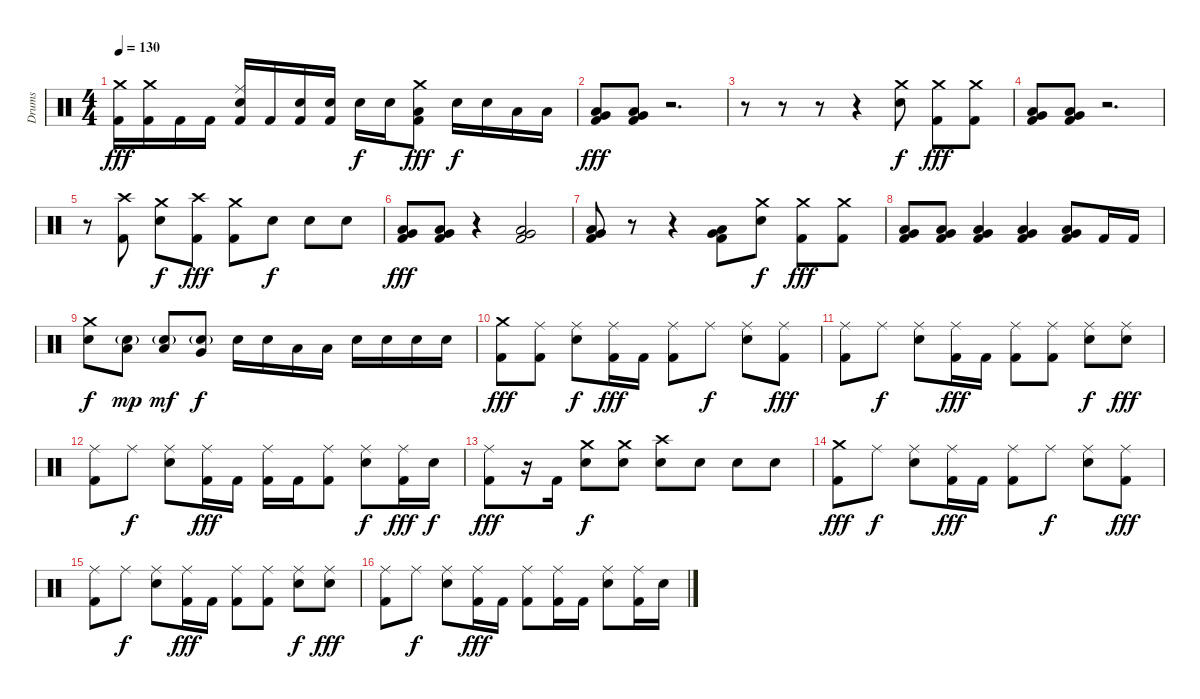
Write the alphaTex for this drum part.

\track ("Drums" "Drums") {instrument percussion}
\staff {score}
\articulation defaults
\ts (4 4)
\tempo 130
\clef neutral
\ks c
("Crash medium (hit)" "Kick (hit) 2").16{dy fff} ("Crash medium (hit)" "Kick (hit) 2").16 "Kick (hit) 2".16 "Kick (hit) 2".16 ("Ride (middle)" "Snare (hit) 2" "Kick (hit) 2").16 "Kick (hit) 2".16 ("Snare (hit) 2" "Kick (hit) 2").16 ("Snare (hit) 2" "Kick (hit) 2").16 "Snare (hit) 2".16{dy f} "Snare (hit) 2".16 ("Crash medium (hit)" "Low Tom (hit)" "Kick (hit) 2").8{dy fff} "Snare (hit) 2".16{dy f} "Snare (hit) 2".16 "Low Tom (hit)".16 "Low Tom (hit)".16 |
("Very Low Tom (hit)" "Low Tom (hit)" "Kick (hit) 2").8{dy fff} ("Very Low Tom (hit)" "Low Tom (hit)" "Kick (hit) 2").8 r.2{d} |
r.8 r.8 r.8 r.4 ("Crash medium (hit)" "Electric Snare (hit)").8{dy f} ("Crash medium (hit)" "Kick (hit) 2").8{dy fff} ("Crash medium (hit)" "Kick (hit) 2").8 |
("Very Low Tom (hit)" "Low Tom (hit)" "Kick (hit) 2").8 ("Very Low Tom (hit)" "Low Tom (hit)" "Kick (hit) 2").8 r.2{d} |
r.8 ("Crash high (hit)" "Kick (hit) 2").8 ("Crash medium (hit)" "Electric Snare (hit)").8{dy f} ("Crash high (hit)" "Kick (hit) 2").8{dy fff} ("Crash medium (hit)" "Kick (hit) 2").8 "Electric Snare (hit)".8{dy f} "Electric Snare (hit)".8 "Electric Snare (hit)".8 |
("Very Low Tom (hit)" "Low Tom (hit)" "Kick (hit) 2").8{dy fff} ("Very Low Tom (hit)" "Low Tom (hit)" "Kick (hit) 2").8 r.4 ("Very Low Tom (hit)" "Low Tom (hit)" "Kick (hit) 2").2 |
("Very Low Tom (hit)" "Low Tom (hit)" "Kick (hit) 2").8 r.8 r.4 ("Very Low Tom (hit)" "Low Tom (hit)" "Kick (hit) 2").8 ("Crash medium (hit)" "Electric Snare (hit)").8{dy f} ("Crash medium (hit)" "Kick (hit) 2").8{dy fff} ("Crash medium (hit)" "Kick (hit) 2").8 |
("Very Low Tom (hit)" "Low Tom (hit)" "Kick (hit) 2").8 ("Very Low Tom (hit)" "Low Tom (hit)" "Kick (hit) 2").8 ("Very Low Tom (hit)" "Low Tom (hit)" "Kick (hit) 2").4 ("Very Low Tom (hit)" "Low Tom (hit)" "Kick (hit) 2").4 ("Very Low Tom (hit)" "Low Tom (hit)" "Kick (hit) 2").8 "Kick (hit) 2".16 "Kick (hit) 2".16 |
("Crash medium (hit)" "Electric Snare (hit)").8{dy f} ("Low Floor Tom (hit)" "Electric Snare (hit)"{g}).8{dy mp} ("Low Tom (hit)" "Electric Snare (hit)"{g}).8{dy mf} ("Very Low Tom (hit)" "Electric Snare (hit)"{g}).8{dy f} "Electric Snare (hit)".16 "Electric Snare (hit)".16 "Low Tom (hit)".16 "Low Tom (hit)".16 "Electric Snare (hit)".16 "Electric Snare (hit)".16 "Electric Snare (hit)".16 "Electric Snare (hit)".16 |
("Crash medium (hit)" "Kick (hit) 2").8{dy fff} ("Ride (middle)" "Kick (hit) 2").8 ("Ride (middle)" "Electric Snare (hit)").8{dy f} ("Ride (middle)" "Kick (hit) 2").16{dy fff} "Kick (hit) 2".16 ("Ride (middle)" "Kick (hit) 2").8 "Ride (middle)".8{dy f} ("Ride (middle)" "Electric Snare (hit)").8 ("Ride (middle)" "Kick (hit) 2").8{dy fff} |
("Ride (middle)" "Kick (hit) 2").8 "Ride (middle)".8{dy f} ("Ride (middle)" "Electric Snare (hit)").8 ("Ride (middle)" "Kick (hit) 2").16{dy fff} "Kick (hit) 2".16 ("Ride (middle)" "Kick (hit) 2").8 ("Ride (middle)" "Kick (hit) 2").8 ("Ride (middle)" "Electric Snare (hit)").8{dy f} ("Ride (middle)" "Electric Snare (hit)").8{dy fff} |
("Ride (middle)" "Kick (hit) 2").8 "Ride (middle)".8{dy f} ("Ride (middle)" "Electric Snare (hit)").8 ("Ride (middle)" "Kick (hit) 2").16{dy fff} "Kick (hit) 2".16 ("Ride (middle)" "Kick (hit) 2").16 "Kick (hit) 2".16 ("Ride (middle)" "Kick (hit) 2").8 ("Ride (middle)" "Electric Snare (hit)").8{dy f} ("Ride (middle)" "Kick (hit) 2").16{dy fff} "Electric Snare (hit)".16{dy f} |
("Ride (middle)" "Kick (hit) 2").8{dy fff} r.16 "Kick (hit) 2".16 ("Crash medium (hit)" "Electric Snare (hit)").8{dy f} ("Crash medium (hit)" "Electric Snare (hit)").8 ("Crash high (hit)" "Electric Snare (hit)").8 "Electric Snare (hit)".8 "Electric Snare (hit)".8 "Electric Snare (hit)".8 |
("Crash medium (hit)" "Kick (hit) 2").8{dy fff} "Ride (middle)".8{dy f} ("Ride (middle)" "Electric Snare (hit)").8 ("Ride (middle)" "Kick (hit) 2").16{dy fff} "Kick (hit) 2".16 ("Ride (middle)" "Kick (hit) 2").8 "Ride (middle)".8{dy f} ("Ride (middle)" "Electric Snare (hit)").8 ("Ride (middle)" "Kick (hit) 2").8{dy fff} |
("Ride (middle)" "Kick (hit) 2").8 "Ride (middle)".8{dy f} ("Ride (middle)" "Electric Snare (hit)").8 ("Ride (middle)" "Kick (hit) 2").16{dy fff} "Kick (hit) 2".16 ("Ride (middle)" "Kick (hit) 2").8 ("Ride (middle)" "Kick (hit) 2").8 ("Ride (middle)" "Electric Snare (hit)").8{dy f} ("Ride (middle)" "Electric Snare (hit)").8{dy fff} |
("Ride (middle)" "Kick (hit) 2").8 "Ride (middle)".8{dy f} ("Ride (middle)" "Electric Snare (hit)").8 ("Ride (middle)" "Kick (hit) 2").16{dy fff} "Kick (hit) 2".16 ("Ride (middle)" "Kick (hit) 2").8 ("Ride (middle)" "Kick (hit) 2").16 "Kick (hit) 2".16 ("Ride (middle)" "Electric Snare (hit)").8 ("Ride (middle)" "Kick (hit) 2").16 "Electric Snare (hit)".16
